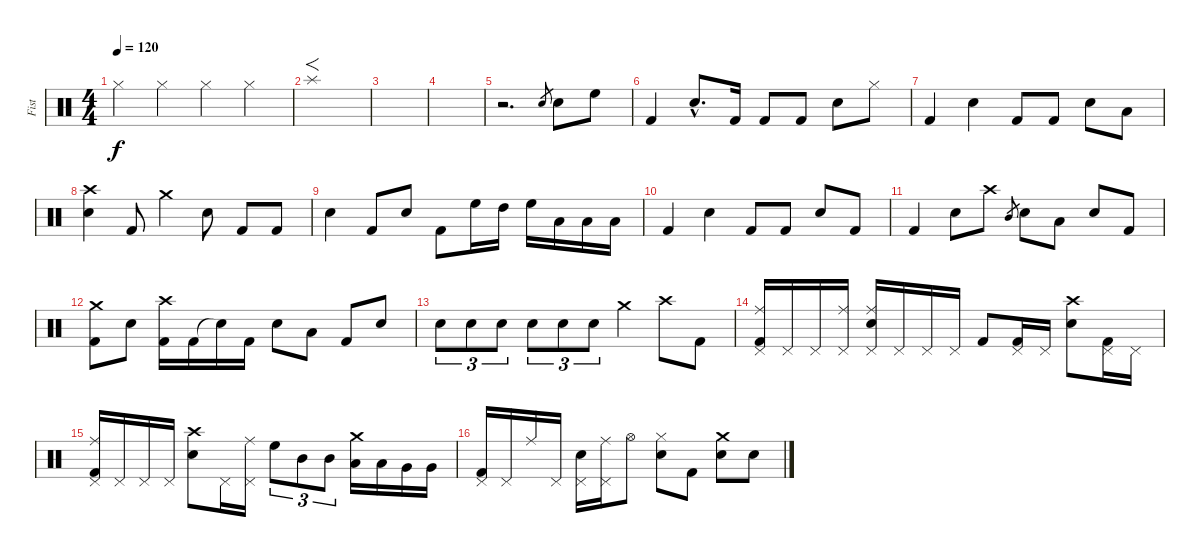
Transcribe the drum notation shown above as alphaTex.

\track ("Fist" "Fist") {instrument percussion}
\staff {score}
\articulation defaults
\ts (4 4)
\tempo 120
\clef neutral
\ks c "Hi-Hat (closed)".4{dy f} "Hi-Hat (closed)".4 "Hi-Hat (closed)".4 "Hi-Hat (closed)".4
|
"Splash (hit)".1{f} |
|
|
r.2{d} "Electric Snare (hit)".8{gr} "Electric Snare (hit)".8 "High Floor Tom (hit)".8 |
"Kick (hit) 2".4 "Electric Snare (hit)"{hac}.8{d} "Kick (hit) 2".16 "Kick (hit) 2".8 "Kick (hit) 2".8 "Electric Snare (hit)".8 "Hi-Hat (closed)".8 |
"Kick (hit) 2".4 "Electric Snare (hit)".4 "Kick (hit) 2".8 "Kick (hit) 2".8 "Electric Snare (hit)".8 "Low Tom (hit)".8 |
("Crash high (hit)" "Electric Snare (hit)").4 "Kick (hit) 2".8 "Crash medium (hit)".4 "Electric Snare (hit)".8 "Kick (hit) 2".8 "Kick (hit) 2".8 |
"Electric Snare (hit)".4 "Kick (hit) 2".8 "Electric Snare (hit)".8 "Kick (hit) 2".8 "High Floor Tom (hit)".16 "High Tom (hit)".16 "High Floor Tom (hit)".16 "Low Tom (hit)".16 "Low Tom (hit)".16 "Low Tom (hit)".16 |
"Kick (hit) 2".4 "Electric Snare (hit)".4 "Kick (hit) 2".8 "Kick (hit) 2".8 "Electric Snare (hit)".8 "Kick (hit) 2".8 |
"Kick (hit) 2".4 "Electric Snare (hit)".8 "Crash high (hit)".8 "Mid Tom (hit)".8{gr} "Electric Snare (hit)".8 "Low Tom (hit)".8 "Electric Snare (hit)".8 "Kick (hit) 2".8 |
("Crash medium (hit)" "Kick (hit) 2").8 "Electric Snare (hit)".8 ("Crash high (hit)" "Kick (hit) 2").16 "Kick (hit) 2".16 "Snare (hit)"{t}.16 "Kick (hit) 2".16 "Electric Snare (hit)".8 "Low Tom (hit)".8 "Kick (hit) 2".8 "Electric Snare (hit)".8 |
"Electric Snare (hit)".8{tu (3 2)} "Electric Snare (hit)".8{tu (3 2)} "Electric Snare (hit)".8{tu (3 2)} "Electric Snare (hit)".8{tu (3 2)} "Electric Snare (hit)".8{tu (3 2)} "Electric Snare (hit)".8{tu (3 2)} "Crash medium (hit)".4 "Crash high (hit)".8 "Kick (hit) 2".8 |
("Ride (middle)" "Pedal Hi-Hat (hit)" "Kick (hit) 2").16 "Pedal Hi-Hat (hit)".16 "Pedal Hi-Hat (hit)".16 ("Ride (middle)" "Pedal Hi-Hat (hit)").16 ("Ride (middle)" "Pedal Hi-Hat (hit)" "Electric Snare (hit)").16 "Pedal Hi-Hat (hit)".16 "Pedal Hi-Hat (hit)".16 "Pedal Hi-Hat (hit)".16 "Kick (hit) 2".8 ("Pedal Hi-Hat (hit)" "Kick (hit) 2").16 "Pedal Hi-Hat (hit)".16 ("Crash high (hit)" "Electric Snare (hit)").8 ("Pedal Hi-Hat (hit)" "Kick (hit) 2").16 "Pedal Hi-Hat (hit)".16 |
("Ride (middle)" "Pedal Hi-Hat (hit)" "Kick (hit) 2").16 "Pedal Hi-Hat (hit)".16 "Pedal Hi-Hat (hit)".16 "Pedal Hi-Hat (hit)".16 ("Crash high (hit)" "Electric Snare (hit)").8 "Pedal Hi-Hat (hit)".16 ("Ride (middle)" "Pedal Hi-Hat (hit)").16 "High Floor Tom (hit)".8{tu (3 2)} "Mid Tom (hit)".8{tu (3 2)} "Mid Tom (hit)".8{tu (3 2)} ("Crash medium (hit)" "Low Tom (hit)").16 "Low Tom (hit)".16 "Very Low Tom (hit)".16 "Very Low Tom (hit)".16 |
("Pedal Hi-Hat (hit)" "Kick (hit) 2").16 "Pedal Hi-Hat (hit)".16 "Ride (middle)".16 "Pedal Hi-Hat (hit)".16 ("Pedal Hi-Hat (hit)" "Electric Snare (hit)").16 ("Ride (middle)" "Pedal Hi-Hat (hit)").16 "Hi-Hat (open)".8 ("Hi-Hat (closed)" "Electric Snare (hit)").8 "Kick (hit) 2".8 ("Crash medium (hit)" "Electric Snare (hit)").8 "Electric Snare (hit)".8
